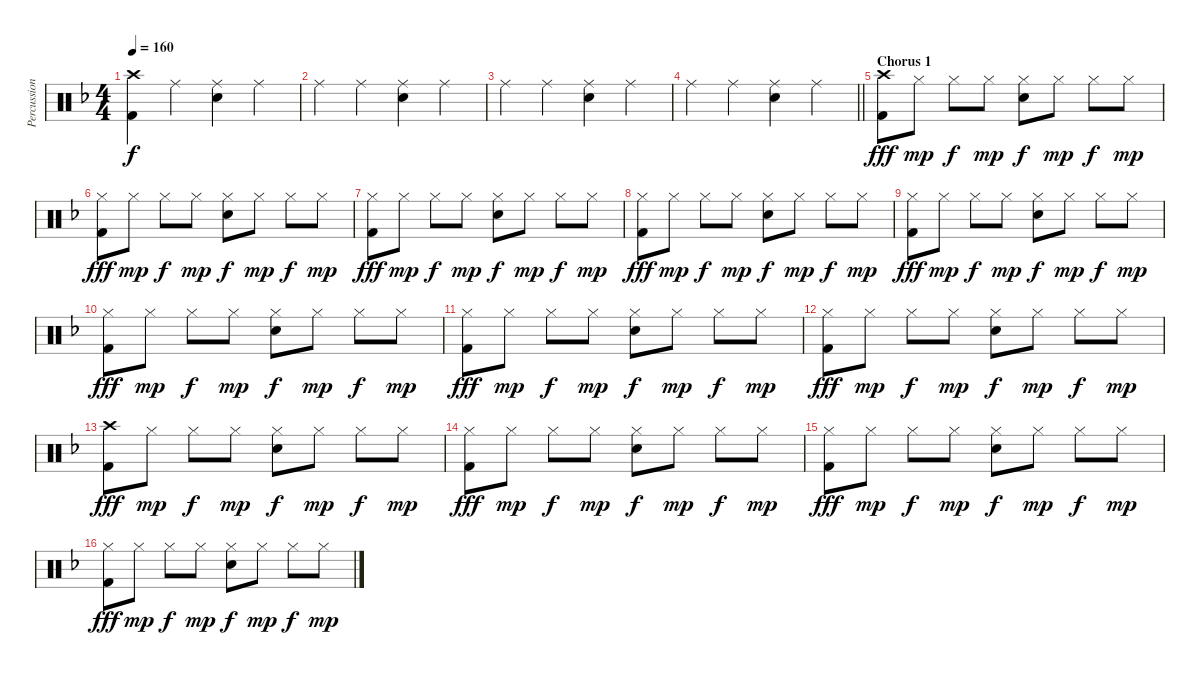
\track ("Percussion" "Percussion") {instrument percussion}
\staff {score}
\articulation defaults
\ts (4 4)
\tempo 160
\clef neutral
\ks f
("Crash high (hit)" "Kick (hit) 2").4{dy f} "Ride (middle)".4 ("Ride (middle)" "Electric Snare (hit)").4 "Ride (middle)".4 |
"Ride (middle)".4 "Ride (middle)".4 ("Ride (middle)" "Electric Snare (hit)").4 "Ride (middle)".4 |
"Ride (middle)".4 "Ride (middle)".4 ("Ride (middle)" "Electric Snare (hit)").4 "Ride (middle)".4 |
\barLineRight lightlight "Ride (middle)".4 "Ride (middle)".4
("Ride (middle)" "Electric Snare (hit)").4 "Ride (middle)".4 |
\section ("" "Chorus 1")
("Crash high (hit)" "Kick (hit) 2").8{dy fff} "Hi-Hat (closed)".8{dy mp} "Hi-Hat (closed)".8{dy f} "Hi-Hat (closed)".8{dy mp} ("Hi-Hat (closed)" "Electric Snare (hit)").8{dy f} "Hi-Hat (closed)".8{dy mp} "Hi-Hat (closed)".8{dy f} "Hi-Hat (closed)".8{dy mp} |
("Hi-Hat (closed)" "Kick (hit) 2").8{dy fff} "Hi-Hat (closed)".8{dy mp} "Hi-Hat (closed)".8{dy f} "Hi-Hat (closed)".8{dy mp} ("Hi-Hat (closed)" "Electric Snare (hit)").8{dy f} "Hi-Hat (closed)".8{dy mp} "Hi-Hat (closed)".8{dy f} "Hi-Hat (closed)".8{dy mp} |
("Hi-Hat (closed)" "Kick (hit) 2").8{dy fff} "Hi-Hat (closed)".8{dy mp} "Hi-Hat (closed)".8{dy f} "Hi-Hat (closed)".8{dy mp} ("Hi-Hat (closed)" "Electric Snare (hit)").8{dy f} "Hi-Hat (closed)".8{dy mp} "Hi-Hat (closed)".8{dy f} "Hi-Hat (closed)".8{dy mp} |
("Hi-Hat (closed)" "Kick (hit) 2").8{dy fff} "Hi-Hat (closed)".8{dy mp} "Hi-Hat (closed)".8{dy f} "Hi-Hat (closed)".8{dy mp} ("Hi-Hat (closed)" "Electric Snare (hit)").8{dy f} "Hi-Hat (closed)".8{dy mp} "Hi-Hat (closed)".8{dy f} "Hi-Hat (closed)".8{dy mp} |
("Hi-Hat (closed)" "Kick (hit) 2").8{dy fff} "Hi-Hat (closed)".8{dy mp} "Hi-Hat (closed)".8{dy f} "Hi-Hat (closed)".8{dy mp} ("Hi-Hat (closed)" "Electric Snare (hit)").8{dy f} "Hi-Hat (closed)".8{dy mp} "Hi-Hat (closed)".8{dy f} "Hi-Hat (closed)".8{dy mp} |
("Hi-Hat (closed)" "Kick (hit) 2").8{dy fff} "Hi-Hat (closed)".8{dy mp} "Hi-Hat (closed)".8{dy f} "Hi-Hat (closed)".8{dy mp} ("Hi-Hat (closed)" "Electric Snare (hit)").8{dy f} "Hi-Hat (closed)".8{dy mp} "Hi-Hat (closed)".8{dy f} "Hi-Hat (closed)".8{dy mp} |
("Hi-Hat (closed)" "Kick (hit) 2").8{dy fff} "Hi-Hat (closed)".8{dy mp} "Hi-Hat (closed)".8{dy f} "Hi-Hat (closed)".8{dy mp} ("Hi-Hat (closed)" "Electric Snare (hit)").8{dy f} "Hi-Hat (closed)".8{dy mp} "Hi-Hat (closed)".8{dy f} "Hi-Hat (closed)".8{dy mp} |
("Hi-Hat (closed)" "Kick (hit) 2").8{dy fff} "Hi-Hat (closed)".8{dy mp} "Hi-Hat (closed)".8{dy f} "Hi-Hat (closed)".8{dy mp} ("Hi-Hat (closed)" "Electric Snare (hit)").8{dy f} "Hi-Hat (closed)".8{dy mp} "Hi-Hat (closed)".8{dy f} "Hi-Hat (closed)".8{dy mp} |
("Crash high (hit)" "Kick (hit) 2").8{dy fff} "Hi-Hat (closed)".8{dy mp} "Hi-Hat (closed)".8{dy f} "Hi-Hat (closed)".8{dy mp} ("Hi-Hat (closed)" "Electric Snare (hit)").8{dy f} "Hi-Hat (closed)".8{dy mp} "Hi-Hat (closed)".8{dy f} "Hi-Hat (closed)".8{dy mp} |
("Hi-Hat (closed)" "Kick (hit) 2").8{dy fff} "Hi-Hat (closed)".8{dy mp} "Hi-Hat (closed)".8{dy f} "Hi-Hat (closed)".8{dy mp} ("Hi-Hat (closed)" "Electric Snare (hit)").8{dy f} "Hi-Hat (closed)".8{dy mp} "Hi-Hat (closed)".8{dy f} "Hi-Hat (closed)".8{dy mp} |
("Hi-Hat (closed)" "Kick (hit) 2").8{dy fff} "Hi-Hat (closed)".8{dy mp} "Hi-Hat (closed)".8{dy f} "Hi-Hat (closed)".8{dy mp} ("Hi-Hat (closed)" "Electric Snare (hit)").8{dy f} "Hi-Hat (closed)".8{dy mp} "Hi-Hat (closed)".8{dy f} "Hi-Hat (closed)".8{dy mp} |
("Hi-Hat (closed)" "Kick (hit) 2").8{dy fff} "Hi-Hat (closed)".8{dy mp} "Hi-Hat (closed)".8{dy f} "Hi-Hat (closed)".8{dy mp} ("Hi-Hat (closed)" "Electric Snare (hit)").8{dy f} "Hi-Hat (closed)".8{dy mp} "Hi-Hat (closed)".8{dy f} "Hi-Hat (closed)".8{dy mp}
